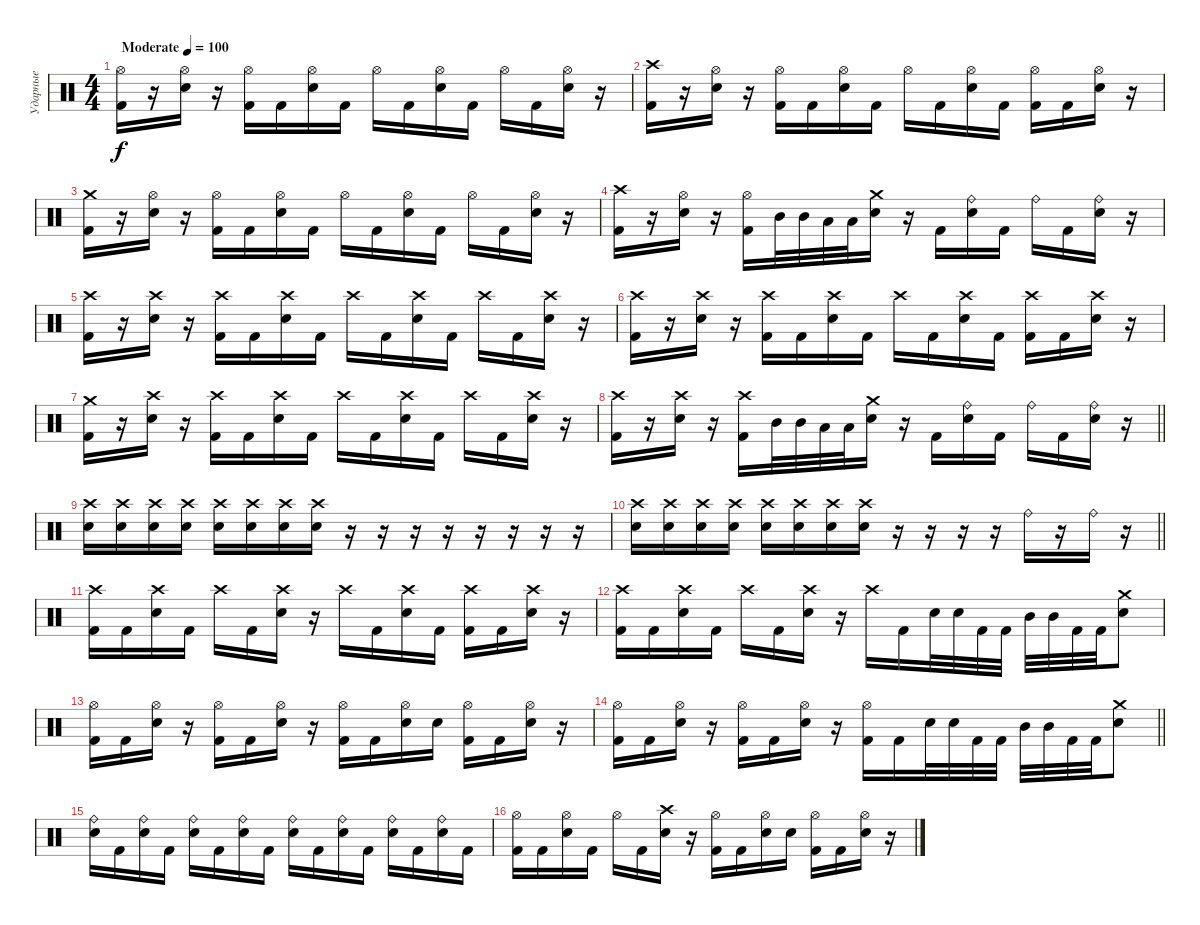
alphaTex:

\track ("Ударные" "Ударные") {instrument percussion}
\staff {score}
\articulation defaults
\ts (4 4)
\section ("" "")
\tempo (100 "Moderate")
\clef neutral
\ks c
("Hi-Hat (open)" "Kick (hit) 2").16{dy f} r.16 ("Hi-Hat (open)" "Electric Snare (hit)").16 r.16 ("Hi-Hat (open)" "Kick (hit) 2").16 "Kick (hit) 2".16 ("Hi-Hat (open)" "Electric Snare (hit)").16 "Kick (hit) 2".16 "Hi-Hat (open)".16 "Kick (hit) 2".16 ("Hi-Hat (open)" "Electric Snare (hit)").16 "Kick (hit) 2".16 "Hi-Hat (open)".16 "Kick (hit) 2".16 ("Hi-Hat (open)" "Electric Snare (hit)").16 r.16 |
("Crash high (hit)" "Kick (hit) 2").16 r.16 ("Hi-Hat (open)" "Electric Snare (hit)").16 r.16 ("Hi-Hat (open)" "Kick (hit) 2").16 "Kick (hit) 2".16 ("Hi-Hat (open)" "Electric Snare (hit)").16 "Kick (hit) 2".16 "Hi-Hat (open)".16 "Kick (hit) 2".16 ("Hi-Hat (open)" "Electric Snare (hit)").16 "Kick (hit) 2".16 ("Hi-Hat (open)" "Kick (hit) 2").16 "Kick (hit) 2".16 ("Hi-Hat (open)" "Electric Snare (hit)").16 r.16 |
("Crash medium (hit)" "Kick (hit) 2").16 r.16 ("Hi-Hat (open)" "Electric Snare (hit)").16 r.16 ("Hi-Hat (open)" "Kick (hit) 2").16 "Kick (hit) 2".16 ("Hi-Hat (open)" "Electric Snare (hit)").16 "Kick (hit) 2".16 "Hi-Hat (open)".16 "Kick (hit) 2".16 ("Hi-Hat (open)" "Electric Snare (hit)").16 "Kick (hit) 2".16 "Hi-Hat (open)".16 "Kick (hit) 2".16 ("Hi-Hat (open)" "Electric Snare (hit)").16 r.16 |
("Crash high (hit)" "Kick (hit) 2").16 r.16 ("Hi-Hat (open)" "Electric Snare (hit)").16 r.16 ("Hi-Hat (open)" "Kick (hit) 2").16 "Mid Tom (hit)".32 "Mid Tom (hit)".32 "Low Tom (hit)".32 "Low Tom (hit)".32 ("Crash medium (hit)" "Electric Snare (hit)").16 r.16 "Kick (hit) 2".16 ("Ride (bell)" "Electric Snare (hit)").16 "Kick (hit) 2".16 "Ride (bell)".16 "Kick (hit) 2".16 ("Ride (bell)" "Electric Snare (hit)").16 r.16 |
("Crash high (hit)" "Kick (hit) 2").16 r.16 ("Crash high (hit)" "Electric Snare (hit)").16 r.16 ("Crash high (hit)" "Kick (hit) 2").16 "Kick (hit) 2".16 ("Crash high (hit)" "Electric Snare (hit)").16 "Kick (hit) 2".16 "Crash high (hit)".16 "Kick (hit) 2".16 ("Crash high (hit)" "Electric Snare (hit)").16 "Kick (hit) 2".16 "Crash high (hit)".16 "Kick (hit) 2".16 ("Crash high (hit)" "Electric Snare (hit)").16 r.16 |
("Crash high (hit)" "Kick (hit) 2").16 r.16 ("Crash high (hit)" "Electric Snare (hit)").16 r.16 ("Crash high (hit)" "Kick (hit) 2").16 "Kick (hit) 2".16 ("Crash high (hit)" "Electric Snare (hit)").16 "Kick (hit) 2".16 "Crash high (hit)".16 "Kick (hit) 2".16 ("Crash high (hit)" "Electric Snare (hit)").16 "Kick (hit) 2".16 ("Crash high (hit)" "Kick (hit) 2").16 "Kick (hit) 2".16 ("Crash high (hit)" "Electric Snare (hit)").16 r.16 |
("Crash medium (hit)" "Kick (hit) 2").16 r.16 ("Crash high (hit)" "Electric Snare (hit)").16 r.16 ("Crash high (hit)" "Kick (hit) 2").16 "Kick (hit) 2".16 ("Crash high (hit)" "Electric Snare (hit)").16 "Kick (hit) 2".16 "Crash high (hit)".16 "Kick (hit) 2".16 ("Crash high (hit)" "Electric Snare (hit)").16 "Kick (hit) 2".16 "Crash high (hit)".16 "Kick (hit) 2".16 ("Crash high (hit)" "Electric Snare (hit)").16 r.16 |
\barLineRight lightlight
("Crash high (hit)" "Kick (hit) 2").16 r.16 ("Crash high (hit)" "Electric Snare (hit)").16 r.16 ("Crash high (hit)" "Kick (hit) 2").16 "Mid Tom (hit)".32 "Mid Tom (hit)".32 "Low Tom (hit)".32 "Low Tom (hit)".32 ("Crash medium (hit)" "Electric Snare (hit)").16 r.16 "Kick (hit) 2".16 ("Ride (bell)" "Electric Snare (hit)").16 "Kick (hit) 2".16 "Ride (bell)".16 "Kick (hit) 2".16 ("Ride (bell)" "Electric Snare (hit)").16 r.16 |
\section ("" "")
("Crash high (hit)" "Electric Snare (hit)").16 ("Crash high (hit)" "Electric Snare (hit)").16 ("Crash high (hit)" "Electric Snare (hit)").16 ("Crash high (hit)" "Electric Snare (hit)").16 ("Crash high (hit)" "Electric Snare (hit)").16 ("Crash high (hit)" "Electric Snare (hit)").16 ("Crash high (hit)" "Electric Snare (hit)").16 ("Crash high (hit)" "Electric Snare (hit)").16 r.16 r.16 r.16 r.16 r.16 r.16 r.16 r.16 |
\barLineRight lightlight
("Crash high (hit)" "Electric Snare (hit)").16 ("Crash high (hit)" "Electric Snare (hit)").16 ("Crash high (hit)" "Electric Snare (hit)").16 ("Crash high (hit)" "Electric Snare (hit)").16 ("Crash high (hit)" "Electric Snare (hit)").16 ("Crash high (hit)" "Electric Snare (hit)").16 ("Crash high (hit)" "Electric Snare (hit)").16 ("Crash high (hit)" "Electric Snare (hit)").16 r.16 r.16 r.16 r.16 "Ride (bell)".16 r.16 "Ride (bell)".16 r.16 |
\section ("" "")
("Crash high (hit)" "Kick (hit) 2").16 "Kick (hit) 2".16 ("Crash high (hit)" "Electric Snare (hit)").16 "Kick (hit) 2".16 "Crash high (hit)".16 "Kick (hit) 2".16 ("Crash high (hit)" "Electric Snare (hit)").16 r.16 "Crash high (hit)".16 "Kick (hit) 2".16 ("Crash high (hit)" "Electric Snare (hit)").16 "Kick (hit) 2".16 ("Crash high (hit)" "Kick (hit) 2").16 "Kick (hit) 2".16 ("Crash high (hit)" "Electric Snare (hit)").16 r.16 |
("Crash high (hit)" "Kick (hit) 2").16 "Kick (hit) 2".16 ("Crash high (hit)" "Electric Snare (hit)").16 "Kick (hit) 2".16 "Crash high (hit)".16 "Kick (hit) 2".16 ("Crash high (hit)" "Electric Snare (hit)").16 r.16 "Crash high (hit)".16 "Kick (hit) 2".16 "Electric Snare (hit)".32 "Electric Snare (hit)".32 "Kick (hit) 2".32 "Kick (hit) 2".32 "Mid Tom (hit)".32 "Mid Tom (hit)".32 "Kick (hit) 2".32 "Kick (hit) 2".32 ("Crash medium (hit)" "Electric Snare (hit)").8 |
("Hi-Hat (open)" "Kick (hit) 2").16 "Kick (hit) 2".16 ("Hi-Hat (open)" "Electric Snare (hit)").16 r.16 ("Hi-Hat (open)" "Kick (hit) 2").16 "Kick (hit) 2".16 ("Hi-Hat (open)" "Electric Snare (hit)").16 r.16 ("Hi-Hat (open)" "Kick (hit) 2").16 "Kick (hit) 2".16 ("Hi-Hat (open)" "Electric Snare (hit)").16 "Electric Snare (hit)".16 ("Hi-Hat (open)" "Kick (hit) 2").16 "Kick (hit) 2".16 ("Hi-Hat (open)" "Electric Snare (hit)").16 r.16 |
\barLineRight lightlight
("Hi-Hat (open)" "Kick (hit) 2").16 "Kick (hit) 2".16 ("Hi-Hat (open)" "Electric Snare (hit)").16 r.16 ("Hi-Hat (open)" "Kick (hit) 2").16 "Kick (hit) 2".16 ("Hi-Hat (open)" "Electric Snare (hit)").16 r.16 ("Hi-Hat (open)" "Kick (hit) 2").16 "Kick (hit) 2".16 "Electric Snare (hit)".32 "Electric Snare (hit)".32 "Kick (hit) 2".32 "Kick (hit) 2".32 "Mid Tom (hit)".32 "Mid Tom (hit)".32 "Kick (hit) 2".32 "Kick (hit) 2".32 ("Crash medium (hit)" "Electric Snare (hit)").8 |
\section ("" "")
("Ride (bell)" "Electric Snare (hit)").16 "Kick (hit) 2".16 ("Ride (bell)" "Electric Snare (hit)").16 "Kick (hit) 2".16 ("Ride (bell)" "Electric Snare (hit)").16 "Kick (hit) 2".16 ("Ride (bell)" "Electric Snare (hit)").16 "Kick (hit) 2".16 ("Ride (bell)" "Electric Snare (hit)").16 "Kick (hit) 2".16 ("Ride (bell)" "Electric Snare (hit)").16 "Kick (hit) 2".16 ("Ride (bell)" "Electric Snare (hit)").16 "Kick (hit) 2".16 ("Ride (bell)" "Electric Snare (hit)").16 "Kick (hit) 2".16 |
("Hi-Hat (open)" "Kick (hit) 2").16 "Kick (hit) 2".16 ("Hi-Hat (open)" "Electric Snare (hit)").16 "Kick (hit) 2".16 "Hi-Hat (open)".16 "Kick (hit) 2".16 ("Crash high (hit)" "Electric Snare (hit)").16 r.16 ("Hi-Hat (open)" "Kick (hit) 2").16 "Kick (hit) 2".16 ("Hi-Hat (open)" "Electric Snare (hit)").16 "Electric Snare (hit)".16 ("Hi-Hat (open)" "Kick (hit) 2").16 "Kick (hit) 2".16 ("Hi-Hat (open)" "Electric Snare (hit)").16 r.16
